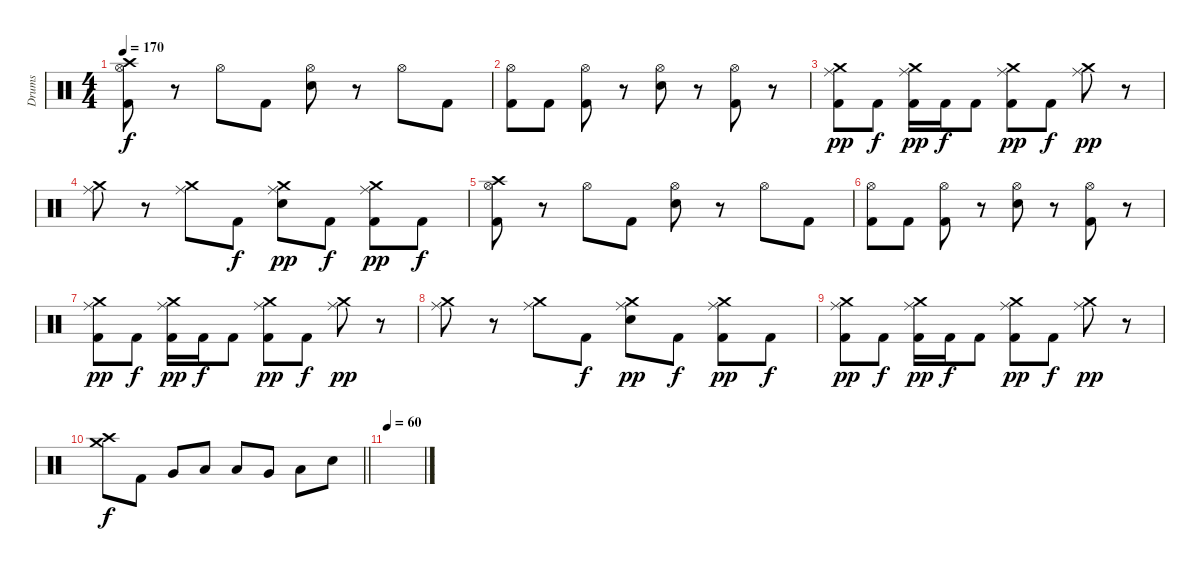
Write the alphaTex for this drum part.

\track ("Drums" "Drums") {instrument percussion}
\staff {score}
\articulation defaults
\ts (4 4)
\tempo 170
\clef neutral
\ks c
("Hi-Hat (open)" "Kick (hit) 2" "Crash high (hit)").8{dy f} r.8 "Hi-Hat (open)".8 "Kick (hit) 2".8 ("Hi-Hat (open)" "Electric Snare (hit)").8 r.8 "Hi-Hat (open)".8 "Kick (hit) 2".8 |
("Hi-Hat (open)" "Kick (hit) 2").8 "Kick (hit) 2".8 ("Hi-Hat (open)" "Kick (hit) 2").8 r.8 ("Hi-Hat (open)" "Electric Snare (hit)").8 r.8 ("Hi-Hat (open)" "Kick (hit) 2").8 r.8 |
("Ride (middle)" "Kick (hit) 2" "Crash medium (hit)").8{dy pp} "Kick (hit) 2".8{dy f} ("Ride (middle)" "Kick (hit) 2" "Crash medium (hit)").16{dy pp} "Kick (hit) 2".16{dy f} "Kick (hit) 2".8 ("Ride (middle)" "Kick (hit) 2" "Crash medium (hit)").8{dy pp} "Kick (hit) 2".8{dy f} ("Ride (middle)" "Crash medium (hit)").8{dy pp} r.8 |
("Ride (middle)" "Crash medium (hit)").8 r.8 ("Ride (middle)" "Crash medium (hit)").8 "Kick (hit) 2".8{dy f} ("Ride (middle)" "Electric Snare (hit)" "Crash medium (hit)").8{dy pp} "Kick (hit) 2".8{dy f} ("Ride (middle)" "Kick (hit) 2" "Crash medium (hit)").8{dy pp} "Kick (hit) 2".8{dy f} |
("Hi-Hat (open)" "Kick (hit) 2" "Crash high (hit)").8 r.8 "Hi-Hat (open)".8 "Kick (hit) 2".8 ("Hi-Hat (open)" "Electric Snare (hit)").8 r.8 "Hi-Hat (open)".8 "Kick (hit) 2".8 |
("Hi-Hat (open)" "Kick (hit) 2").8 "Kick (hit) 2".8 ("Hi-Hat (open)" "Kick (hit) 2").8 r.8 ("Hi-Hat (open)" "Electric Snare (hit)").8 r.8 ("Hi-Hat (open)" "Kick (hit) 2").8 r.8 |
("Ride (middle)" "Kick (hit) 2" "Crash medium (hit)").8{dy pp} "Kick (hit) 2".8{dy f} ("Ride (middle)" "Kick (hit) 2" "Crash medium (hit)").16{dy pp} "Kick (hit) 2".16{dy f} "Kick (hit) 2".8 ("Ride (middle)" "Kick (hit) 2" "Crash medium (hit)").8{dy pp} "Kick (hit) 2".8{dy f} ("Ride (middle)" "Crash medium (hit)").8{dy pp} r.8 |
("Ride (middle)" "Crash medium (hit)").8 r.8 ("Ride (middle)" "Crash medium (hit)").8 "Kick (hit) 2".8{dy f} ("Ride (middle)" "Electric Snare (hit)" "Crash medium (hit)").8{dy pp} "Kick (hit) 2".8{dy f} ("Ride (middle)" "Kick (hit) 2" "Crash medium (hit)").8{dy pp} "Kick (hit) 2".8{dy f} |
("Ride (middle)" "Kick (hit) 2" "Crash medium (hit)").8{dy pp} "Kick (hit) 2".8{dy f} ("Ride (middle)" "Kick (hit) 2" "Crash medium (hit)").16{dy pp} "Kick (hit) 2".16{dy f} "Kick (hit) 2".8 ("Ride (middle)" "Kick (hit) 2" "Crash medium (hit)").8{dy pp} "Kick (hit) 2".8{dy f} ("Ride (middle)" "Crash medium (hit)").8{dy pp} r.8 |
\barLineRight lightlight
("Crash high (hit)" "Crash medium (hit)").8{dy f} "Kick (hit) 2".8 "Very Low Tom (hit)".8 "Low Floor Tom (hit)".8 "Low Tom (hit)".8 "Very Low Tom (hit)".8 "Low Floor Tom (hit)".8 "Electric Snare (hit)".8 |
\tempo 60
